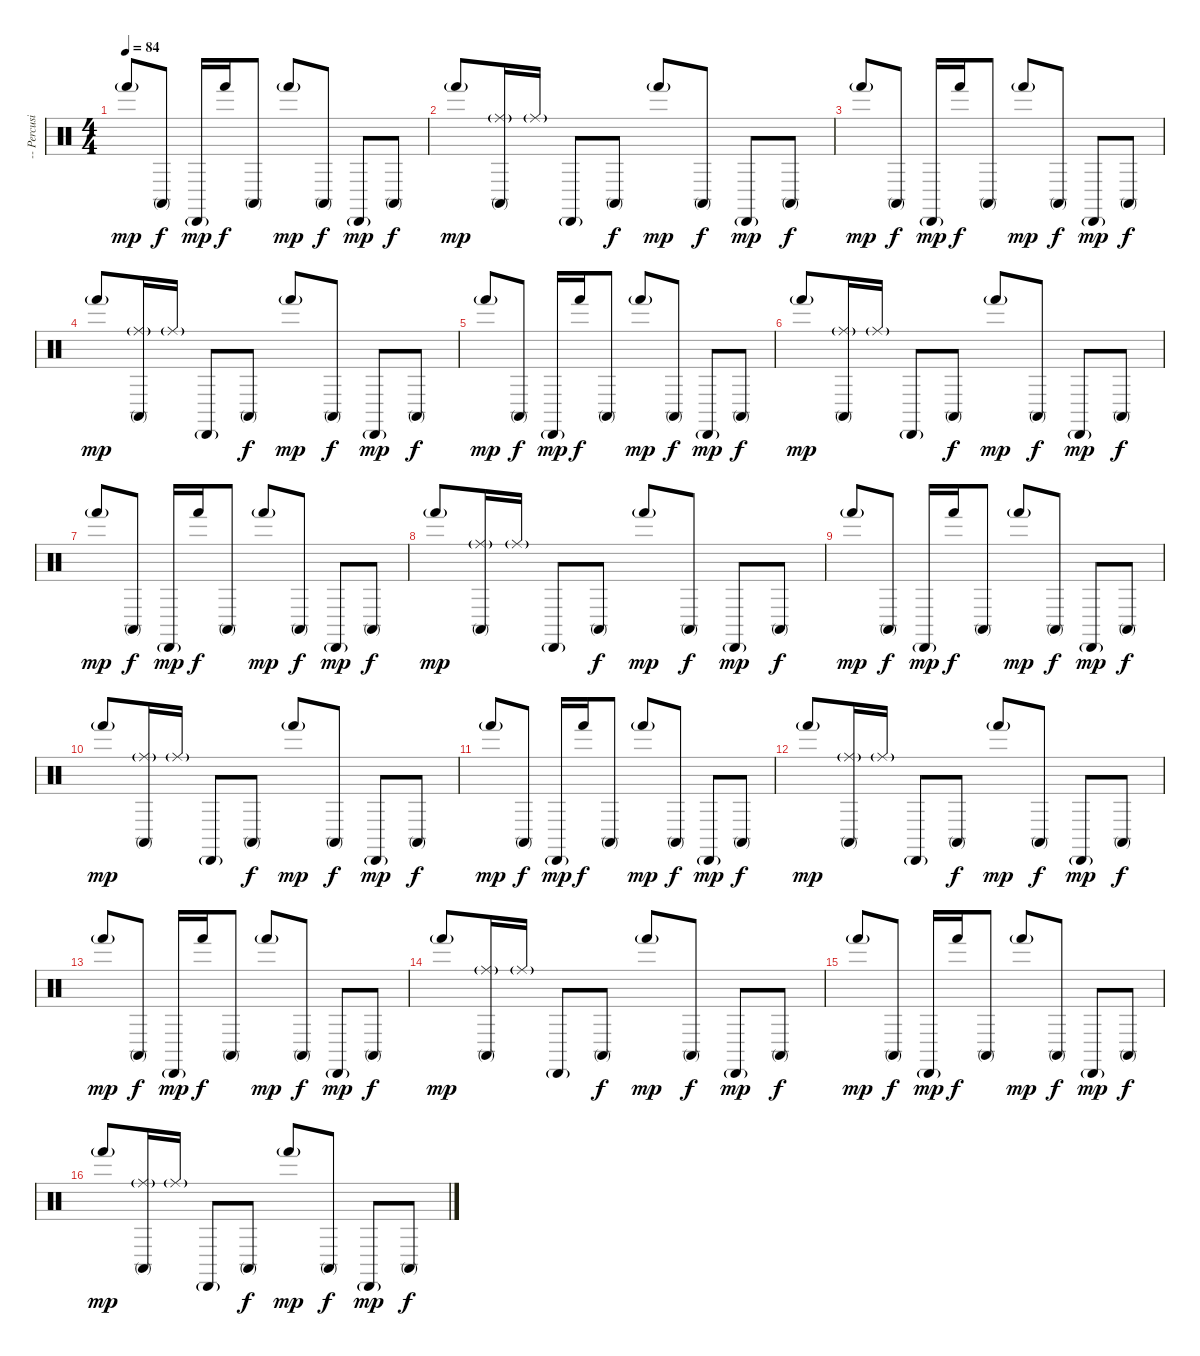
\track ("-- Percusion Kit" "-- Percusi") {instrument percussion}
\staff {score}
\articulation defaults
\ts (4 4)
\tempo 84
\clef neutral
\ks c "Hand (hit)"{g}.8{dy mp} "Conga high (mute)".8{dy f} "Cabasa (hit)"{g}.16{dy mp} "Hand (hit)".16{dy f} "Conga high (mute)".8 "Hand (hit)"{g}.8{dy mp} "Conga high (mute)".8{dy f} "Cabasa (hit)"{g}.8{dy mp} "Conga high (mute)".8{dy f}
|
"Hand (hit)"{g}.8{dy mp} ("Ride (middle)"{g} "Conga high (mute)").16 "Ride (middle)"{g}.16 "Cabasa (hit)"{g}.8 "Conga high (mute)".8{dy f} "Hand (hit)"{g}.8{dy mp} "Conga high (mute)".8{dy f} "Cabasa (hit)"{g}.8{dy mp} "Conga high (mute)".8{dy f} |
"Hand (hit)"{g}.8{dy mp} "Conga high (mute)".8{dy f} "Cabasa (hit)"{g}.16{dy mp} "Hand (hit)".16{dy f} "Conga high (mute)".8 "Hand (hit)"{g}.8{dy mp} "Conga high (mute)".8{dy f} "Cabasa (hit)"{g}.8{dy mp} "Conga high (mute)".8{dy f} |
"Hand (hit)"{g}.8{dy mp} ("Ride (middle)"{g} "Conga high (mute)").16 "Ride (middle)"{g}.16 "Cabasa (hit)"{g}.8 "Conga high (mute)".8{dy f} "Hand (hit)"{g}.8{dy mp} "Conga high (mute)".8{dy f} "Cabasa (hit)"{g}.8{dy mp} "Conga high (mute)".8{dy f} |
"Hand (hit)"{g}.8{dy mp} "Conga high (mute)".8{dy f} "Cabasa (hit)"{g}.16{dy mp} "Hand (hit)".16{dy f} "Conga high (mute)".8 "Hand (hit)"{g}.8{dy mp} "Conga high (mute)".8{dy f} "Cabasa (hit)"{g}.8{dy mp} "Conga high (mute)".8{dy f} |
"Hand (hit)"{g}.8{dy mp} ("Ride (middle)"{g} "Conga high (mute)").16 "Ride (middle)"{g}.16 "Cabasa (hit)"{g}.8 "Conga high (mute)".8{dy f} "Hand (hit)"{g}.8{dy mp} "Conga high (mute)".8{dy f} "Cabasa (hit)"{g}.8{dy mp} "Conga high (mute)".8{dy f} |
"Hand (hit)"{g}.8{dy mp} "Conga high (mute)".8{dy f} "Cabasa (hit)"{g}.16{dy mp} "Hand (hit)".16{dy f} "Conga high (mute)".8 "Hand (hit)"{g}.8{dy mp} "Conga high (mute)".8{dy f} "Cabasa (hit)"{g}.8{dy mp} "Conga high (mute)".8{dy f} |
"Hand (hit)"{g}.8{dy mp} ("Ride (middle)"{g} "Conga high (mute)").16 "Ride (middle)"{g}.16 "Cabasa (hit)"{g}.8 "Conga high (mute)".8{dy f} "Hand (hit)"{g}.8{dy mp} "Conga high (mute)".8{dy f} "Cabasa (hit)"{g}.8{dy mp} "Conga high (mute)".8{dy f} |
"Hand (hit)"{g}.8{dy mp} "Conga high (mute)".8{dy f} "Cabasa (hit)"{g}.16{dy mp} "Hand (hit)".16{dy f} "Conga high (mute)".8 "Hand (hit)"{g}.8{dy mp} "Conga high (mute)".8{dy f} "Cabasa (hit)"{g}.8{dy mp} "Conga high (mute)".8{dy f} |
"Hand (hit)"{g}.8{dy mp} ("Ride (middle)"{g} "Conga high (mute)").16 "Ride (middle)"{g}.16 "Cabasa (hit)"{g}.8 "Conga high (mute)".8{dy f} "Hand (hit)"{g}.8{dy mp} "Conga high (mute)".8{dy f} "Cabasa (hit)"{g}.8{dy mp} "Conga high (mute)".8{dy f} |
"Hand (hit)"{g}.8{dy mp} "Conga high (mute)".8{dy f} "Cabasa (hit)"{g}.16{dy mp} "Hand (hit)".16{dy f} "Conga high (mute)".8 "Hand (hit)"{g}.8{dy mp} "Conga high (mute)".8{dy f} "Cabasa (hit)"{g}.8{dy mp} "Conga high (mute)".8{dy f} |
"Hand (hit)"{g}.8{dy mp} ("Ride (middle)"{g} "Conga high (mute)").16 "Ride (middle)"{g}.16 "Cabasa (hit)"{g}.8 "Conga high (mute)".8{dy f} "Hand (hit)"{g}.8{dy mp} "Conga high (mute)".8{dy f} "Cabasa (hit)"{g}.8{dy mp} "Conga high (mute)".8{dy f} |
"Hand (hit)"{g}.8{dy mp} "Conga high (mute)".8{dy f} "Cabasa (hit)"{g}.16{dy mp} "Hand (hit)".16{dy f} "Conga high (mute)".8 "Hand (hit)"{g}.8{dy mp} "Conga high (mute)".8{dy f} "Cabasa (hit)"{g}.8{dy mp} "Conga high (mute)".8{dy f} |
"Hand (hit)"{g}.8{dy mp} ("Ride (middle)"{g} "Conga high (mute)").16 "Ride (middle)"{g}.16 "Cabasa (hit)"{g}.8 "Conga high (mute)".8{dy f} "Hand (hit)"{g}.8{dy mp} "Conga high (mute)".8{dy f} "Cabasa (hit)"{g}.8{dy mp} "Conga high (mute)".8{dy f} |
"Hand (hit)"{g}.8{dy mp} "Conga high (mute)".8{dy f} "Cabasa (hit)"{g}.16{dy mp} "Hand (hit)".16{dy f} "Conga high (mute)".8 "Hand (hit)"{g}.8{dy mp} "Conga high (mute)".8{dy f} "Cabasa (hit)"{g}.8{dy mp} "Conga high (mute)".8{dy f} |
"Hand (hit)"{g}.8{dy mp} ("Ride (middle)"{g} "Conga high (mute)").16 "Ride (middle)"{g}.16 "Cabasa (hit)"{g}.8 "Conga high (mute)".8{dy f} "Hand (hit)"{g}.8{dy mp} "Conga high (mute)".8{dy f} "Cabasa (hit)"{g}.8{dy mp} "Conga high (mute)".8{dy f}
